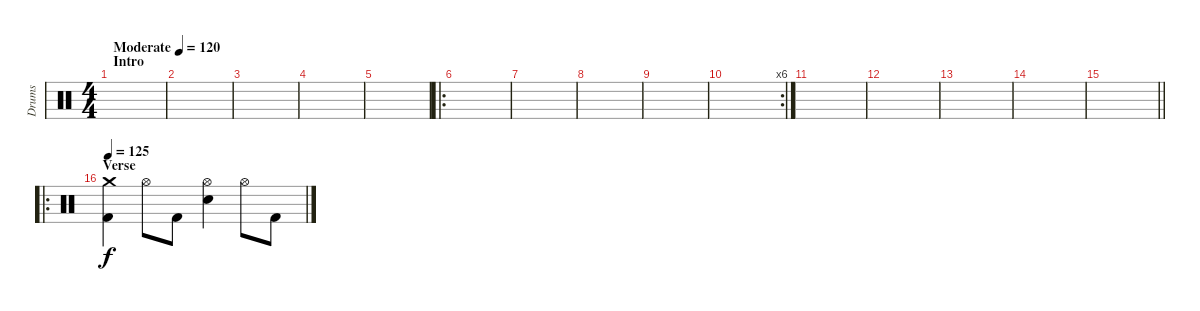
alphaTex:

\track ("Drums" "Drums") {instrument percussion}
\staff {score}
\articulation defaults
\ts (4 4)
\section ("" "Intro")
\tempo (120 "Moderate")
\clef neutral
\ks c
|
|
|
|
|
\ro
|
|
|
|
\rc 6
|
|
|
|
|
\barLineRight lightlight
|
\ro
\section ("" "Verse")
\tempo 125
("Crash medium (hit)" "Kick (hit) 2").4 "Hi-Hat (open)".8 "Kick (hit) 2".8 ("Hi-Hat (open)" "Snare (hit) 2").4 "Hi-Hat (open)".8 "Kick (hit) 2".8
